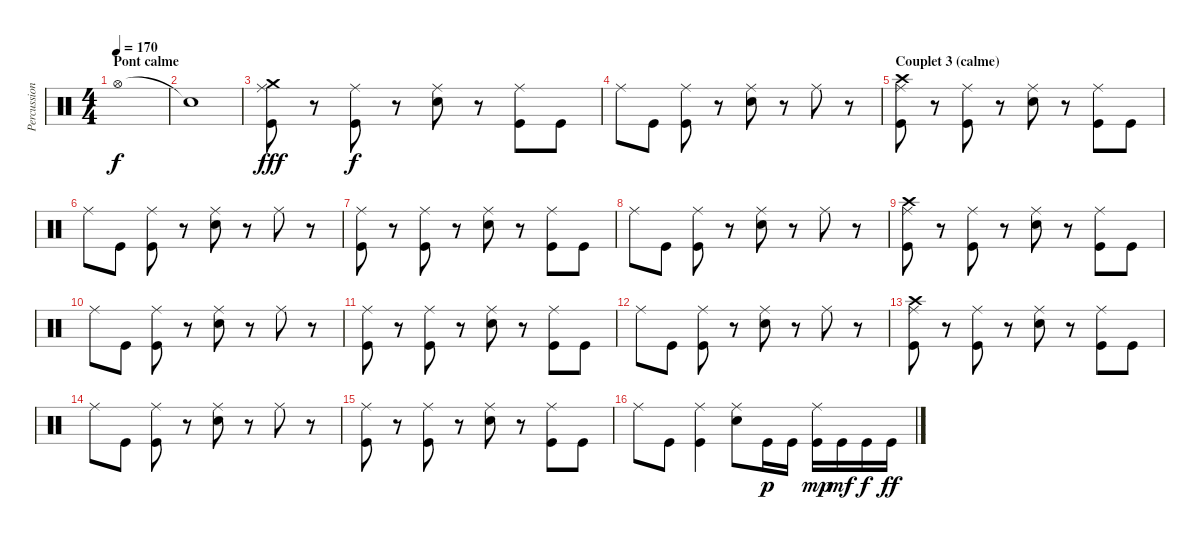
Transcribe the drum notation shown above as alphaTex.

\track ("Percussions" "Percussion") {instrument percussion}
\staff {score}
\articulation defaults
\ts (4 4)
\section ("" "Pont calme")
\tempo 170
\clef neutral
\ks c "Hi-Hat (open)".1{dy f}
|
"Snare (hit)"{t}.1 |
("Ride (middle)" "Crash medium (hit)" "Kick (hit)").8{dy fff} r.8 ("Ride (middle)" "Kick (hit)").8{dy f} r.8 ("Ride (middle)" "Electric Snare (hit)").8 r.8 ("Ride (middle)" "Kick (hit)").8 "Kick (hit)".8 |
"Ride (middle)".8 "Kick (hit)".8 ("Ride (middle)" "Kick (hit)").8 r.8 ("Ride (middle)" "Electric Snare (hit)").8 r.8 "Ride (middle)".8 r.8 |
\section ("" "Couplet 3 (calme)")
("Ride (middle)" "Crash high (hit)" "Kick (hit)").8 r.8 ("Ride (middle)" "Kick (hit)").8 r.8 ("Ride (middle)" "Electric Snare (hit)").8 r.8 ("Ride (middle)" "Kick (hit)").8 "Kick (hit)".8 |
"Ride (middle)".8 "Kick (hit)".8 ("Ride (middle)" "Kick (hit)").8 r.8 ("Ride (middle)" "Electric Snare (hit)").8 r.8 "Ride (middle)".8 r.8 |
("Ride (middle)" "Kick (hit)").8 r.8 ("Ride (middle)" "Kick (hit)").8 r.8 ("Ride (middle)" "Electric Snare (hit)").8 r.8 ("Ride (middle)" "Kick (hit)").8 "Kick (hit)".8 |
"Ride (middle)".8 "Kick (hit)".8 ("Ride (middle)" "Kick (hit)").8 r.8 ("Ride (middle)" "Electric Snare (hit)").8 r.8 "Ride (middle)".8 r.8 |
("Ride (middle)" "Crash high (hit)" "Kick (hit)").8 r.8 ("Ride (middle)" "Kick (hit)").8 r.8 ("Ride (middle)" "Electric Snare (hit)").8 r.8 ("Ride (middle)" "Kick (hit)").8 "Kick (hit)".8 |
"Ride (middle)".8 "Kick (hit)".8 ("Ride (middle)" "Kick (hit)").8 r.8 ("Ride (middle)" "Electric Snare (hit)").8 r.8 "Ride (middle)".8 r.8 |
("Ride (middle)" "Kick (hit)").8 r.8 ("Ride (middle)" "Kick (hit)").8 r.8 ("Ride (middle)" "Electric Snare (hit)").8 r.8 ("Ride (middle)" "Kick (hit)").8 "Kick (hit)".8 |
"Ride (middle)".8 "Kick (hit)".8 ("Ride (middle)" "Kick (hit)").8 r.8 ("Ride (middle)" "Electric Snare (hit)").8 r.8 "Ride (middle)".8 r.8 |
("Ride (middle)" "Crash high (hit)" "Kick (hit)").8 r.8 ("Ride (middle)" "Kick (hit)").8 r.8 ("Ride (middle)" "Electric Snare (hit)").8 r.8 ("Ride (middle)" "Kick (hit)").8 "Kick (hit)".8 |
"Ride (middle)".8 "Kick (hit)".8 ("Ride (middle)" "Kick (hit)").8 r.8 ("Ride (middle)" "Electric Snare (hit)").8 r.8 "Ride (middle)".8 r.8 |
("Ride (middle)" "Kick (hit)").8 r.8 ("Ride (middle)" "Kick (hit)").8 r.8 ("Ride (middle)" "Electric Snare (hit)").8 r.8 ("Ride (middle)" "Kick (hit)").8 "Kick (hit)".8 |
"Ride (middle)".8 "Kick (hit)".8 ("Ride (middle)" "Kick (hit)").4 ("Ride (middle)" "Electric Snare (hit)").8 "Kick (hit)".16{dy p} "Kick (hit)".16 ("Ride (middle)" "Kick (hit)").16{dy mp} "Kick (hit)".16{dy mf} "Kick (hit)".16{dy f} "Kick (hit)".16{dy ff}
